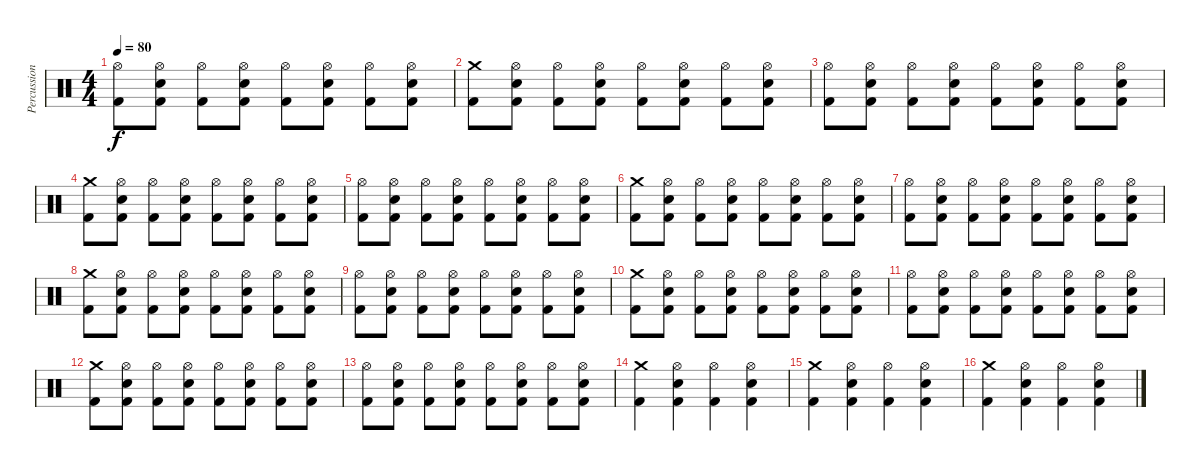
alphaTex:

\track ("Percussion" "Percussion") {instrument percussion}
\staff {score}
\articulation defaults
\ts (4 4)
\tempo 80
\clef neutral
\ks c
("Hi-Hat (open)" "Kick (hit) 2").8{dy f} ("Hi-Hat (open)" "Electric Snare (hit)" "Kick (hit) 2").8 ("Hi-Hat (open)" "Kick (hit) 2").8 ("Hi-Hat (open)" "Electric Snare (hit)" "Kick (hit) 2").8 ("Hi-Hat (open)" "Kick (hit) 2").8 ("Hi-Hat (open)" "Electric Snare (hit)" "Kick (hit) 2").8 ("Hi-Hat (open)" "Kick (hit) 2").8 ("Hi-Hat (open)" "Electric Snare (hit)" "Kick (hit) 2").8 |
("Crash medium (hit)" "Kick (hit) 2").8 ("Hi-Hat (open)" "Electric Snare (hit)" "Kick (hit) 2").8 ("Hi-Hat (open)" "Kick (hit) 2").8 ("Hi-Hat (open)" "Electric Snare (hit)" "Kick (hit) 2").8 ("Hi-Hat (open)" "Kick (hit) 2").8 ("Hi-Hat (open)" "Electric Snare (hit)" "Kick (hit) 2").8 ("Hi-Hat (open)" "Kick (hit) 2").8 ("Hi-Hat (open)" "Electric Snare (hit)" "Kick (hit) 2").8 |
("Hi-Hat (open)" "Kick (hit) 2").8 ("Hi-Hat (open)" "Electric Snare (hit)" "Kick (hit) 2").8 ("Hi-Hat (open)" "Kick (hit) 2").8 ("Hi-Hat (open)" "Electric Snare (hit)" "Kick (hit) 2").8 ("Hi-Hat (open)" "Kick (hit) 2").8 ("Hi-Hat (open)" "Electric Snare (hit)" "Kick (hit) 2").8 ("Hi-Hat (open)" "Kick (hit) 2").8 ("Hi-Hat (open)" "Electric Snare (hit)" "Kick (hit) 2").8 |
("Crash medium (hit)" "Kick (hit) 2").8 ("Hi-Hat (open)" "Electric Snare (hit)" "Kick (hit) 2").8 ("Hi-Hat (open)" "Kick (hit) 2").8 ("Hi-Hat (open)" "Electric Snare (hit)" "Kick (hit) 2").8 ("Hi-Hat (open)" "Kick (hit) 2").8 ("Hi-Hat (open)" "Electric Snare (hit)" "Kick (hit) 2").8 ("Hi-Hat (open)" "Kick (hit) 2").8 ("Hi-Hat (open)" "Electric Snare (hit)" "Kick (hit) 2").8 |
("Hi-Hat (open)" "Kick (hit) 2").8 ("Hi-Hat (open)" "Electric Snare (hit)" "Kick (hit) 2").8 ("Hi-Hat (open)" "Kick (hit) 2").8 ("Hi-Hat (open)" "Electric Snare (hit)" "Kick (hit) 2").8 ("Hi-Hat (open)" "Kick (hit) 2").8 ("Hi-Hat (open)" "Electric Snare (hit)" "Kick (hit) 2").8 ("Hi-Hat (open)" "Kick (hit) 2").8 ("Hi-Hat (open)" "Electric Snare (hit)" "Kick (hit) 2").8 |
("Crash medium (hit)" "Kick (hit) 2").8 ("Hi-Hat (open)" "Electric Snare (hit)" "Kick (hit) 2").8 ("Hi-Hat (open)" "Kick (hit) 2").8 ("Hi-Hat (open)" "Electric Snare (hit)" "Kick (hit) 2").8 ("Hi-Hat (open)" "Kick (hit) 2").8 ("Hi-Hat (open)" "Electric Snare (hit)" "Kick (hit) 2").8 ("Hi-Hat (open)" "Kick (hit) 2").8 ("Hi-Hat (open)" "Electric Snare (hit)" "Kick (hit) 2").8 |
("Hi-Hat (open)" "Kick (hit) 2").8 ("Hi-Hat (open)" "Electric Snare (hit)" "Kick (hit) 2").8 ("Hi-Hat (open)" "Kick (hit) 2").8 ("Hi-Hat (open)" "Electric Snare (hit)" "Kick (hit) 2").8 ("Hi-Hat (open)" "Kick (hit) 2").8 ("Hi-Hat (open)" "Electric Snare (hit)" "Kick (hit) 2").8 ("Hi-Hat (open)" "Kick (hit) 2").8 ("Hi-Hat (open)" "Electric Snare (hit)" "Kick (hit) 2").8 |
("Crash medium (hit)" "Kick (hit) 2").8 ("Hi-Hat (open)" "Electric Snare (hit)" "Kick (hit) 2").8 ("Hi-Hat (open)" "Kick (hit) 2").8 ("Hi-Hat (open)" "Electric Snare (hit)" "Kick (hit) 2").8 ("Hi-Hat (open)" "Kick (hit) 2").8 ("Hi-Hat (open)" "Electric Snare (hit)" "Kick (hit) 2").8 ("Hi-Hat (open)" "Kick (hit) 2").8 ("Hi-Hat (open)" "Electric Snare (hit)" "Kick (hit) 2").8 |
("Hi-Hat (open)" "Kick (hit) 2").8 ("Hi-Hat (open)" "Electric Snare (hit)" "Kick (hit) 2").8 ("Hi-Hat (open)" "Kick (hit) 2").8 ("Hi-Hat (open)" "Electric Snare (hit)" "Kick (hit) 2").8 ("Hi-Hat (open)" "Kick (hit) 2").8 ("Hi-Hat (open)" "Electric Snare (hit)" "Kick (hit) 2").8 ("Hi-Hat (open)" "Kick (hit) 2").8 ("Hi-Hat (open)" "Electric Snare (hit)" "Kick (hit) 2").8 |
("Crash medium (hit)" "Kick (hit) 2").8 ("Hi-Hat (open)" "Electric Snare (hit)" "Kick (hit) 2").8 ("Hi-Hat (open)" "Kick (hit) 2").8 ("Hi-Hat (open)" "Electric Snare (hit)" "Kick (hit) 2").8 ("Hi-Hat (open)" "Kick (hit) 2").8 ("Hi-Hat (open)" "Electric Snare (hit)" "Kick (hit) 2").8 ("Hi-Hat (open)" "Kick (hit) 2").8 ("Hi-Hat (open)" "Electric Snare (hit)" "Kick (hit) 2").8 |
("Hi-Hat (open)" "Kick (hit) 2").8 ("Hi-Hat (open)" "Electric Snare (hit)" "Kick (hit) 2").8 ("Hi-Hat (open)" "Kick (hit) 2").8 ("Hi-Hat (open)" "Electric Snare (hit)" "Kick (hit) 2").8 ("Hi-Hat (open)" "Kick (hit) 2").8 ("Hi-Hat (open)" "Electric Snare (hit)" "Kick (hit) 2").8 ("Hi-Hat (open)" "Kick (hit) 2").8 ("Hi-Hat (open)" "Electric Snare (hit)" "Kick (hit) 2").8 |
("Crash medium (hit)" "Kick (hit) 2").8 ("Hi-Hat (open)" "Electric Snare (hit)" "Kick (hit) 2").8 ("Hi-Hat (open)" "Kick (hit) 2").8 ("Hi-Hat (open)" "Electric Snare (hit)" "Kick (hit) 2").8 ("Hi-Hat (open)" "Kick (hit) 2").8 ("Hi-Hat (open)" "Electric Snare (hit)" "Kick (hit) 2").8 ("Hi-Hat (open)" "Kick (hit) 2").8 ("Hi-Hat (open)" "Electric Snare (hit)" "Kick (hit) 2").8 |
("Hi-Hat (open)" "Kick (hit) 2").8 ("Hi-Hat (open)" "Electric Snare (hit)" "Kick (hit) 2").8 ("Hi-Hat (open)" "Kick (hit) 2").8 ("Hi-Hat (open)" "Electric Snare (hit)" "Kick (hit) 2").8 ("Hi-Hat (open)" "Kick (hit) 2").8 ("Hi-Hat (open)" "Electric Snare (hit)" "Kick (hit) 2").8 ("Hi-Hat (open)" "Kick (hit) 2").8 ("Hi-Hat (open)" "Electric Snare (hit)" "Kick (hit) 2").8 |
("Crash medium (hit)" "Kick (hit) 2").4 ("Hi-Hat (open)" "Electric Snare (hit)" "Kick (hit) 2").4 ("Hi-Hat (open)" "Kick (hit) 2").4 ("Hi-Hat (open)" "Electric Snare (hit)" "Kick (hit) 2").4 |
("Crash medium (hit)" "Kick (hit) 2").4 ("Hi-Hat (open)" "Electric Snare (hit)" "Kick (hit) 2").4 ("Hi-Hat (open)" "Kick (hit) 2").4 ("Hi-Hat (open)" "Electric Snare (hit)" "Kick (hit) 2").4 |
("Crash medium (hit)" "Kick (hit) 2").4 ("Hi-Hat (open)" "Electric Snare (hit)" "Kick (hit) 2").4 ("Hi-Hat (open)" "Kick (hit) 2").4 ("Hi-Hat (open)" "Electric Snare (hit)" "Kick (hit) 2").4
